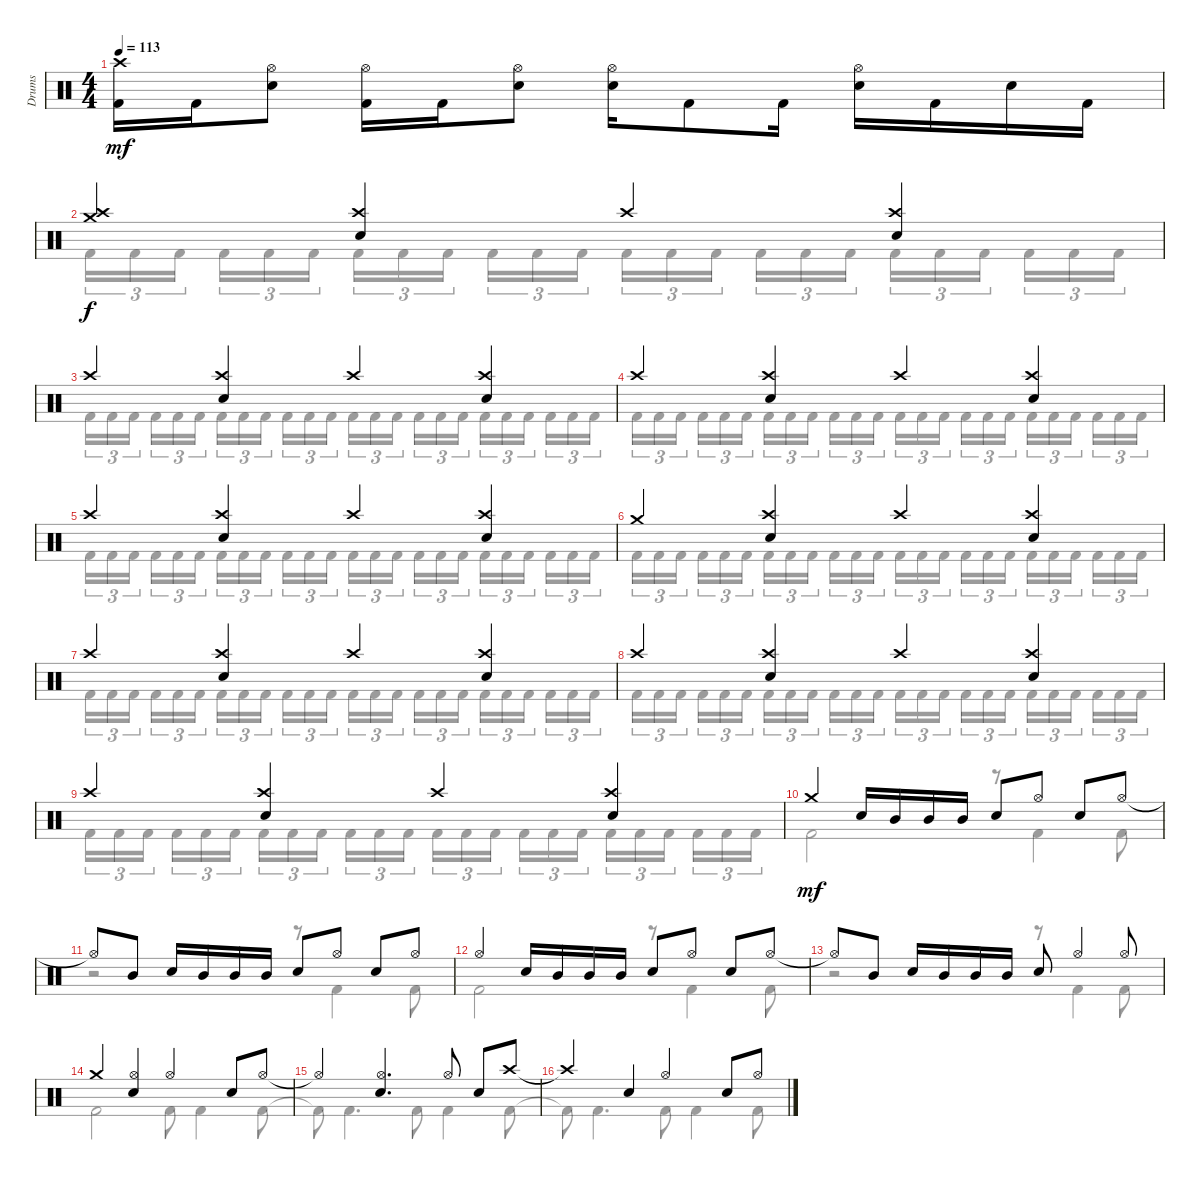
\track ("Drums" "Drums") {instrument percussion}
\staff {score}
\articulation defaults
\voice
\ts (4 4)
\tempo 113
\clef neutral
\ks c
("Crash high (hit)"{t} "Kick (hit) 2"{t}).16{dy mf} "Kick (hit) 2".16 ("Hi-Hat (open)" "Snare (hit) 2").8 ("Hi-Hat (open)" "Kick (hit) 2").16 "Kick (hit) 2".16 ("Hi-Hat (open)" "Snare (hit) 2").8 ("Hi-Hat (open)" "Snare (hit) 2").16 "Kick (hit) 2".8 "Kick (hit) 2".16 ("Hi-Hat (open)" "Snare (hit) 2").16 "Kick (hit) 2".16 "Snare (hit) 2".16 "Kick (hit) 2".16 |
("Crash medium (hit)" "Crash high (hit)").4{dy f} ("Crash high (hit)" "Snare (hit) 2").4 "Crash high (hit)".4 ("Crash high (hit)" "Snare (hit) 2").4 |
"Crash high (hit)".4 ("Crash high (hit)" "Snare (hit) 2").4 "Crash high (hit)".4 ("Crash high (hit)" "Snare (hit) 2").4 |
"Crash high (hit)".4 ("Crash high (hit)" "Snare (hit) 2").4 "Crash high (hit)".4 ("Crash high (hit)" "Snare (hit) 2").4 |
"Crash high (hit)".4 ("Crash high (hit)" "Snare (hit) 2").4 "Crash high (hit)".4 ("Crash high (hit)" "Snare (hit) 2").4 |
"Crash medium (hit)".4 ("Crash high (hit)" "Snare (hit) 2").4 "Crash high (hit)".4 ("Crash high (hit)" "Snare (hit) 2").4 |
"Crash high (hit)".4 ("Crash high (hit)" "Snare (hit) 2").4 "Crash high (hit)".4 ("Crash high (hit)" "Snare (hit) 2").4 |
"Crash high (hit)".4 ("Crash high (hit)" "Snare (hit) 2").4 "Crash high (hit)".4 ("Crash high (hit)" "Snare (hit) 2").4 |
"Crash high (hit)".4 ("Crash high (hit)" "Snare (hit) 2").4 "Crash high (hit)".4 ("Crash high (hit)" "Snare (hit) 2").4 |
"Crash medium (hit)".4{dy mf} "Snare (hit) 2".16 "Mid Tom (hit)".16 "Mid Tom (hit)".16 "Mid Tom (hit)".16 "Snare (hit) 2".8 "Hi-Hat (open)".8 "Snare (hit) 2".8 "Hi-Hat (open)".8 |
"Hi-Hat (open)"{t}.8 "Mid Tom (hit)".8 "Snare (hit) 2".16 "Mid Tom (hit)".16 "Mid Tom (hit)".16 "Mid Tom (hit)".16 "Snare (hit) 2".8 "Hi-Hat (open)".8 "Snare (hit) 2".8 "Hi-Hat (open)".8 |
"Hi-Hat (open)".4 "Snare (hit) 2".16 "Mid Tom (hit)".16 "Mid Tom (hit)".16 "Mid Tom (hit)".16 "Snare (hit) 2".8 "Hi-Hat (open)".8 "Snare (hit) 2".8 "Hi-Hat (open)".8 |
"Hi-Hat (open)"{t}.8 "Mid Tom (hit)".8 "Snare (hit) 2".16 "Mid Tom (hit)".16 "Mid Tom (hit)".16 "Mid Tom (hit)".16 "Snare (hit) 2".8 "Hi-Hat (open)".4 "Hi-Hat (open)".8 |
"Crash medium (hit)".4 ("Hi-Hat (open)" "Snare (hit) 2").4 "Hi-Hat (open)".4 "Snare (hit) 2".8 "Hi-Hat (open)".8 |
"Hi-Hat (open)"{t}.4 ("Hi-Hat (open)" "Snare (hit) 2").4{d} "Hi-Hat (open)".8 "Snare (hit) 2".8 "Crash high (hit)".8 |
"Crash high (hit)"{t}.4 "Snare (hit) 2".4 "Hi-Hat (open)".4 "Snare (hit) 2".8 "Hi-Hat (open)".8
\voice
\clef neutral
\ottava regular
\simile none
\ks c
|
"Kick (hit) 2".16{tu (3 2) dy f} "Kick (hit) 2".16{tu (3 2)} "Kick (hit) 2".16{tu (3 2) beam splitsecondary} "Kick (hit) 2".16{tu (3 2)} "Kick (hit) 2".16{tu (3 2)} "Kick (hit) 2".16{tu (3 2)} "Kick (hit) 2".16{tu (3 2)} "Kick (hit) 2".16{tu (3 2)} "Kick (hit) 2".16{tu (3 2) beam splitsecondary} "Kick (hit) 2".16{tu (3 2)} "Kick (hit) 2".16{tu (3 2)} "Kick (hit) 2".16{tu (3 2)} "Kick (hit) 2".16{tu (3 2)} "Kick (hit) 2".16{tu (3 2)} "Kick (hit) 2".16{tu (3 2) beam splitsecondary} "Kick (hit) 2".16{tu (3 2)} "Kick (hit) 2".16{tu (3 2)} "Kick (hit) 2".16{tu (3 2)} "Kick (hit) 2".16{tu (3 2)} "Kick (hit) 2".16{tu (3 2)} "Kick (hit) 2".16{tu (3 2) beam splitsecondary} "Kick (hit) 2".16{tu (3 2)} "Kick (hit) 2".16{tu (3 2)} "Kick (hit) 2".16{tu (3 2)} |
"Kick (hit) 2".16{tu (3 2)} "Kick (hit) 2".16{tu (3 2)} "Kick (hit) 2".16{tu (3 2) beam splitsecondary} "Kick (hit) 2".16{tu (3 2)} "Kick (hit) 2".16{tu (3 2)} "Kick (hit) 2".16{tu (3 2)} "Kick (hit) 2".16{tu (3 2)} "Kick (hit) 2".16{tu (3 2)} "Kick (hit) 2".16{tu (3 2) beam splitsecondary} "Kick (hit) 2".16{tu (3 2)} "Kick (hit) 2".16{tu (3 2)} "Kick (hit) 2".16{tu (3 2)} "Kick (hit) 2".16{tu (3 2)} "Kick (hit) 2".16{tu (3 2)} "Kick (hit) 2".16{tu (3 2) beam splitsecondary} "Kick (hit) 2".16{tu (3 2)} "Kick (hit) 2".16{tu (3 2)} "Kick (hit) 2".16{tu (3 2)} "Kick (hit) 2".16{tu (3 2)} "Kick (hit) 2".16{tu (3 2)} "Kick (hit) 2".16{tu (3 2) beam splitsecondary} "Kick (hit) 2".16{tu (3 2)} "Kick (hit) 2".16{tu (3 2)} "Kick (hit) 2".16{tu (3 2)} |
"Kick (hit) 2".16{tu (3 2)} "Kick (hit) 2".16{tu (3 2)} "Kick (hit) 2".16{tu (3 2) beam splitsecondary} "Kick (hit) 2".16{tu (3 2)} "Kick (hit) 2".16{tu (3 2)} "Kick (hit) 2".16{tu (3 2)} "Kick (hit) 2".16{tu (3 2)} "Kick (hit) 2".16{tu (3 2)} "Kick (hit) 2".16{tu (3 2) beam splitsecondary} "Kick (hit) 2".16{tu (3 2)} "Kick (hit) 2".16{tu (3 2)} "Kick (hit) 2".16{tu (3 2)} "Kick (hit) 2".16{tu (3 2)} "Kick (hit) 2".16{tu (3 2)} "Kick (hit) 2".16{tu (3 2) beam splitsecondary} "Kick (hit) 2".16{tu (3 2)} "Kick (hit) 2".16{tu (3 2)} "Kick (hit) 2".16{tu (3 2)} "Kick (hit) 2".16{tu (3 2)} "Kick (hit) 2".16{tu (3 2)} "Kick (hit) 2".16{tu (3 2) beam splitsecondary} "Kick (hit) 2".16{tu (3 2)} "Kick (hit) 2".16{tu (3 2)} "Kick (hit) 2".16{tu (3 2)} |
"Kick (hit) 2".16{tu (3 2)} "Kick (hit) 2".16{tu (3 2)} "Kick (hit) 2".16{tu (3 2) beam splitsecondary} "Kick (hit) 2".16{tu (3 2)} "Kick (hit) 2".16{tu (3 2)} "Kick (hit) 2".16{tu (3 2)} "Kick (hit) 2".16{tu (3 2)} "Kick (hit) 2".16{tu (3 2)} "Kick (hit) 2".16{tu (3 2) beam splitsecondary} "Kick (hit) 2".16{tu (3 2)} "Kick (hit) 2".16{tu (3 2)} "Kick (hit) 2".16{tu (3 2)} "Kick (hit) 2".16{tu (3 2)} "Kick (hit) 2".16{tu (3 2)} "Kick (hit) 2".16{tu (3 2) beam splitsecondary} "Kick (hit) 2".16{tu (3 2)} "Kick (hit) 2".16{tu (3 2)} "Kick (hit) 2".16{tu (3 2)} "Kick (hit) 2".16{tu (3 2)} "Kick (hit) 2".16{tu (3 2)} "Kick (hit) 2".16{tu (3 2) beam splitsecondary} "Kick (hit) 2".16{tu (3 2)} "Kick (hit) 2".16{tu (3 2)} "Kick (hit) 2".16{tu (3 2)} |
"Kick (hit) 2".16{tu (3 2)} "Kick (hit) 2".16{tu (3 2)} "Kick (hit) 2".16{tu (3 2) beam splitsecondary} "Kick (hit) 2".16{tu (3 2)} "Kick (hit) 2".16{tu (3 2)} "Kick (hit) 2".16{tu (3 2)} "Kick (hit) 2".16{tu (3 2)} "Kick (hit) 2".16{tu (3 2)} "Kick (hit) 2".16{tu (3 2) beam splitsecondary} "Kick (hit) 2".16{tu (3 2)} "Kick (hit) 2".16{tu (3 2)} "Kick (hit) 2".16{tu (3 2)} "Kick (hit) 2".16{tu (3 2)} "Kick (hit) 2".16{tu (3 2)} "Kick (hit) 2".16{tu (3 2) beam splitsecondary} "Kick (hit) 2".16{tu (3 2)} "Kick (hit) 2".16{tu (3 2)} "Kick (hit) 2".16{tu (3 2)} "Kick (hit) 2".16{tu (3 2)} "Kick (hit) 2".16{tu (3 2)} "Kick (hit) 2".16{tu (3 2) beam splitsecondary} "Kick (hit) 2".16{tu (3 2)} "Kick (hit) 2".16{tu (3 2)} "Kick (hit) 2".16{tu (3 2)} |
"Kick (hit) 2".16{tu (3 2)} "Kick (hit) 2".16{tu (3 2)} "Kick (hit) 2".16{tu (3 2) beam splitsecondary} "Kick (hit) 2".16{tu (3 2)} "Kick (hit) 2".16{tu (3 2)} "Kick (hit) 2".16{tu (3 2)} "Kick (hit) 2".16{tu (3 2)} "Kick (hit) 2".16{tu (3 2)} "Kick (hit) 2".16{tu (3 2) beam splitsecondary} "Kick (hit) 2".16{tu (3 2)} "Kick (hit) 2".16{tu (3 2)} "Kick (hit) 2".16{tu (3 2)} "Kick (hit) 2".16{tu (3 2)} "Kick (hit) 2".16{tu (3 2)} "Kick (hit) 2".16{tu (3 2) beam splitsecondary} "Kick (hit) 2".16{tu (3 2)} "Kick (hit) 2".16{tu (3 2)} "Kick (hit) 2".16{tu (3 2)} "Kick (hit) 2".16{tu (3 2)} "Kick (hit) 2".16{tu (3 2)} "Kick (hit) 2".16{tu (3 2) beam splitsecondary} "Kick (hit) 2".16{tu (3 2)} "Kick (hit) 2".16{tu (3 2)} "Kick (hit) 2".16{tu (3 2)} |
"Kick (hit) 2".16{tu (3 2)} "Kick (hit) 2".16{tu (3 2)} "Kick (hit) 2".16{tu (3 2) beam splitsecondary} "Kick (hit) 2".16{tu (3 2)} "Kick (hit) 2".16{tu (3 2)} "Kick (hit) 2".16{tu (3 2)} "Kick (hit) 2".16{tu (3 2)} "Kick (hit) 2".16{tu (3 2)} "Kick (hit) 2".16{tu (3 2) beam splitsecondary} "Kick (hit) 2".16{tu (3 2)} "Kick (hit) 2".16{tu (3 2)} "Kick (hit) 2".16{tu (3 2)} "Kick (hit) 2".16{tu (3 2)} "Kick (hit) 2".16{tu (3 2)} "Kick (hit) 2".16{tu (3 2) beam splitsecondary} "Kick (hit) 2".16{tu (3 2)} "Kick (hit) 2".16{tu (3 2)} "Kick (hit) 2".16{tu (3 2)} "Kick (hit) 2".16{tu (3 2)} "Kick (hit) 2".16{tu (3 2)} "Kick (hit) 2".16{tu (3 2) beam splitsecondary} "Kick (hit) 2".16{tu (3 2)} "Kick (hit) 2".16{tu (3 2)} "Kick (hit) 2".16{tu (3 2)} |
"Kick (hit) 2".16{tu (3 2)} "Kick (hit) 2".16{tu (3 2)} "Kick (hit) 2".16{tu (3 2) beam splitsecondary} "Kick (hit) 2".16{tu (3 2)} "Kick (hit) 2".16{tu (3 2)} "Kick (hit) 2".16{tu (3 2)} "Kick (hit) 2".16{tu (3 2)} "Kick (hit) 2".16{tu (3 2)} "Kick (hit) 2".16{tu (3 2) beam splitsecondary} "Kick (hit) 2".16{tu (3 2)} "Kick (hit) 2".16{tu (3 2)} "Kick (hit) 2".16{tu (3 2)} "Kick (hit) 2".16{tu (3 2)} "Kick (hit) 2".16{tu (3 2)} "Kick (hit) 2".16{tu (3 2) beam splitsecondary} "Kick (hit) 2".16{tu (3 2)} "Kick (hit) 2".16{tu (3 2)} "Kick (hit) 2".16{tu (3 2)} "Kick (hit) 2".16{tu (3 2)} "Kick (hit) 2".16{tu (3 2)} "Kick (hit) 2".16{tu (3 2) beam splitsecondary} "Kick (hit) 2".16{tu (3 2)} "Kick (hit) 2".16{tu (3 2)} "Kick (hit) 2".16{tu (3 2)} |
"Kick (hit) 2".2{dy mf} r.8 "Kick (hit) 2".4 "Kick (hit) 2".8 |
r.2 r.8 "Kick (hit) 2".4 "Kick (hit) 2".8 |
"Kick (hit) 2".2 r.8 "Kick (hit) 2".4 "Kick (hit) 2".8 |
r.2 r.8 "Kick (hit) 2".4 "Kick (hit) 2".8 |
"Kick (hit) 2".2 "Kick (hit) 2".8 "Kick (hit) 2".4 "Kick (hit) 2".8 |
"Kick (hit) 2"{t}.8 "Kick (hit) 2".4{d} "Kick (hit) 2".8 "Kick (hit) 2".4 "Kick (hit) 2".8 |
"Kick (hit) 2"{t}.8 "Kick (hit) 2".4{d} "Kick (hit) 2".8 "Kick (hit) 2".4 "Kick (hit) 2".8
